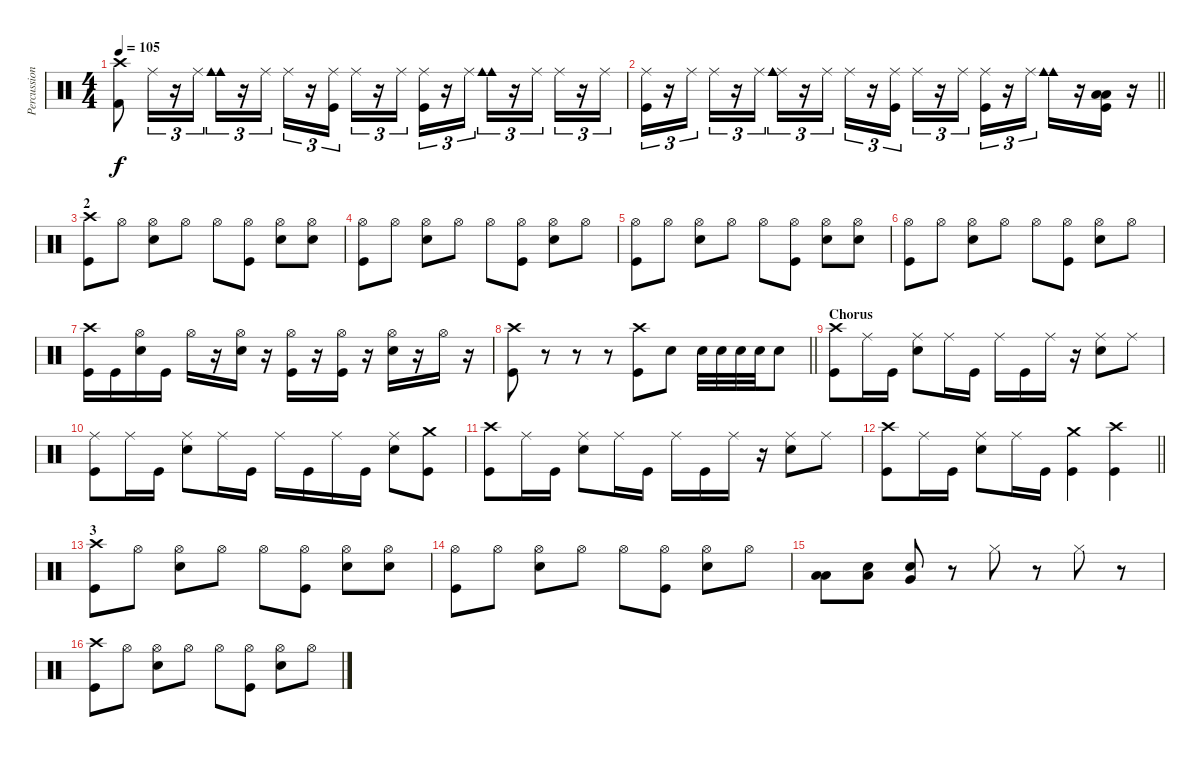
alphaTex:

\track ("Percussions" "Percussion") {instrument percussion}
\staff {score}
\articulation defaults
\ts (4 4)
\tempo 105
\clef neutral
\ks c
("Crash high (hit)" "Kick (hit) 2").8{dy f} "Ride (middle)".16{tu (3 2)} r.16{tu (3 2)} "Ride (middle)".16{tu (3 2)} ("Cowbell medium (hit)" "Cowbell medium (hit)").16{tu (3 2)} r.16{tu (3 2)} "Ride (middle)".16{tu (3 2)} "Ride (middle)".16{tu (3 2)} r.16{tu (3 2)} ("Ride (middle)" "Kick (hit)").16{tu (3 2)} "Ride (middle)".16{tu (3 2)} r.16{tu (3 2)} "Ride (middle)".16{tu (3 2)} ("Ride (middle)" "Kick (hit)").16{tu (3 2)} r.16{tu (3 2)} "Ride (middle)".16{tu (3 2)} ("Cowbell medium (hit)" "Cowbell medium (hit)").16{tu (3 2)} r.16{tu (3 2)} "Ride (middle)".16{tu (3 2)} "Ride (middle)".16{tu (3 2)} r.16{tu (3 2)} "Ride (middle)".16{tu (3 2)} |
\barLineRight lightlight
("Ride (middle)" "Kick (hit)").16{tu (3 2)} r.16{tu (3 2)} "Ride (middle)".16{tu (3 2)} "Ride (middle)".16{tu (3 2)} r.16{tu (3 2)} "Ride (middle)".16{tu (3 2)} ("Ride (middle)" "Cowbell medium (hit)" "Cowbell medium (hit)").16{tu (3 2)} r.16{tu (3 2)} "Ride (middle)".16{tu (3 2)} "Ride (middle)".16{tu (3 2)} r.16{tu (3 2)} ("Ride (middle)" "Kick (hit)").16{tu (3 2)} "Ride (middle)".16{tu (3 2)} r.16{tu (3 2)} "Ride (middle)".16{tu (3 2)} ("Ride (middle)" "Kick (hit)").16{tu (3 2)} r.16{tu (3 2)} "Ride (middle)".16{tu (3 2)} ("Cowbell medium (hit)" "Cowbell medium (hit)").16 r.16 ("Low Tom (hit)" "Low Tom (hit)" "Kick (hit)").16 r.16 |
\section ("" "2")
("Crash high (hit)" "Kick (hit)").8 "Hi-Hat (open)".8 ("Hi-Hat (open)" "Snare (hit) 2").8 "Hi-Hat (open)".8 "Hi-Hat (open)".8 ("Hi-Hat (open)" "Kick (hit)").8 ("Hi-Hat (open)" "Snare (hit) 2").8 ("Hi-Hat (open)" "Snare (hit) 2").8 |
("Hi-Hat (open)" "Kick (hit)").8 "Hi-Hat (open)".8 ("Hi-Hat (open)" "Snare (hit) 2").8 "Hi-Hat (open)".8 "Hi-Hat (open)".8 ("Hi-Hat (open)" "Kick (hit)").8 ("Hi-Hat (open)" "Snare (hit) 2").8 "Hi-Hat (open)".8 |
("Hi-Hat (open)" "Kick (hit)").8 "Hi-Hat (open)".8 ("Hi-Hat (open)" "Snare (hit) 2").8 "Hi-Hat (open)".8 "Hi-Hat (open)".8 ("Hi-Hat (open)" "Kick (hit)").8 ("Hi-Hat (open)" "Snare (hit) 2").8 ("Hi-Hat (open)" "Snare (hit) 2").8 |
("Hi-Hat (open)" "Kick (hit)").8 "Hi-Hat (open)".8 ("Hi-Hat (open)" "Snare (hit) 2").8 "Hi-Hat (open)".8 "Hi-Hat (open)".8 ("Hi-Hat (open)" "Kick (hit)").8 ("Hi-Hat (open)" "Snare (hit) 2").8 "Hi-Hat (open)".8 |
("Crash high (hit)" "Kick (hit)").16 "Kick (hit)".16 ("Hi-Hat (open)" "Snare (hit) 2").16 "Kick (hit)".16 "Hi-Hat (open)".16 r.16 ("Hi-Hat (open)" "Snare (hit) 2").16 r.16 ("Hi-Hat (open)" "Kick (hit)").16 r.16 ("Hi-Hat (open)" "Kick (hit)").16 r.16 ("Hi-Hat (open)" "Snare (hit) 2").16 r.16 "Hi-Hat (open)".16 r.16 |
\barLineRight lightlight
("Crash high (hit)" "Kick (hit)").8 r.8 r.8 r.8 ("Crash high (hit)" "Kick (hit)").8 "Snare (hit) 2".8 "Snare (hit) 2".32 "Snare (hit) 2".32 "Snare (hit) 2".32 "Snare (hit) 2".32 "Snare (hit) 2".8 |
\section ("" "Chorus")
("Crash high (hit)" "Kick (hit)").8 "Ride (middle)".16 "Kick (hit)".16 ("Ride (middle)" "Snare (hit) 2").8 "Ride (middle)".16 "Kick (hit)".16 "Ride (middle)".16 "Kick (hit)".16 "Ride (middle)".16 r.16 ("Ride (middle)" "Snare (hit) 2").8 "Ride (middle)".8 |
("Ride (middle)" "Kick (hit)").8 "Ride (middle)".16 "Kick (hit)".16 ("Ride (middle)" "Snare (hit) 2").8 "Ride (middle)".16 "Kick (hit)".16 "Ride (middle)".16 "Kick (hit)".16 "Ride (middle)".16 "Kick (hit)".16 ("Ride (middle)" "Snare (hit) 2").8 ("Crash medium (hit)" "Kick (hit)").8 |
("Crash high (hit)" "Kick (hit)").8 "Ride (middle)".16 "Kick (hit)".16 ("Ride (middle)" "Snare (hit) 2").8 "Ride (middle)".16 "Kick (hit)".16 "Ride (middle)".16 "Kick (hit)".16 "Ride (middle)".16 r.16 ("Ride (middle)" "Snare (hit) 2").8 "Ride (middle)".8 |
\barLineRight lightlight
("Crash high (hit)" "Kick (hit)").8 "Ride (middle)".16 "Kick (hit)".16 ("Ride (middle)" "Snare (hit) 2").8 "Ride (middle)".16 "Kick (hit)".16 ("Crash medium (hit)" "Kick (hit)").4 ("Crash high (hit)" "Kick (hit)").4 |
\section ("" "3")
("Crash high (hit)" "Kick (hit)").8 "Hi-Hat (open)".8 ("Hi-Hat (open)" "Snare (hit) 2").8 "Hi-Hat (open)".8 "Hi-Hat (open)".8 ("Hi-Hat (open)" "Kick (hit)").8 ("Hi-Hat (open)" "Snare (hit) 2").8 ("Hi-Hat (open)" "Snare (hit) 2").8 |
("Hi-Hat (open)" "Kick (hit)").8 "Hi-Hat (open)".8 ("Hi-Hat (open)" "Snare (hit) 2").8 "Hi-Hat (open)".8 "Hi-Hat (open)".8 ("Hi-Hat (open)" "Kick (hit)").8 ("Hi-Hat (open)" "Snare (hit) 2").8 "Hi-Hat (open)".8 |
("Low Tom (hit)" "Low Tom (hit)").8 ("Low Tom (hit)" "Snare (hit) 2").8 ("Very Low Tom (hit)" "Snare (hit) 2").8 r.8 "Hi-Hat (closed)".8 r.8 "Hi-Hat (closed)".8 r.8 |
("Crash high (hit)" "Kick (hit)").8 "Hi-Hat (open)".8 ("Hi-Hat (open)" "Snare (hit) 2").8 "Hi-Hat (open)".8 "Hi-Hat (open)".8 ("Hi-Hat (open)" "Kick (hit)").8 ("Hi-Hat (open)" "Snare (hit) 2").8 "Hi-Hat (open)".8
